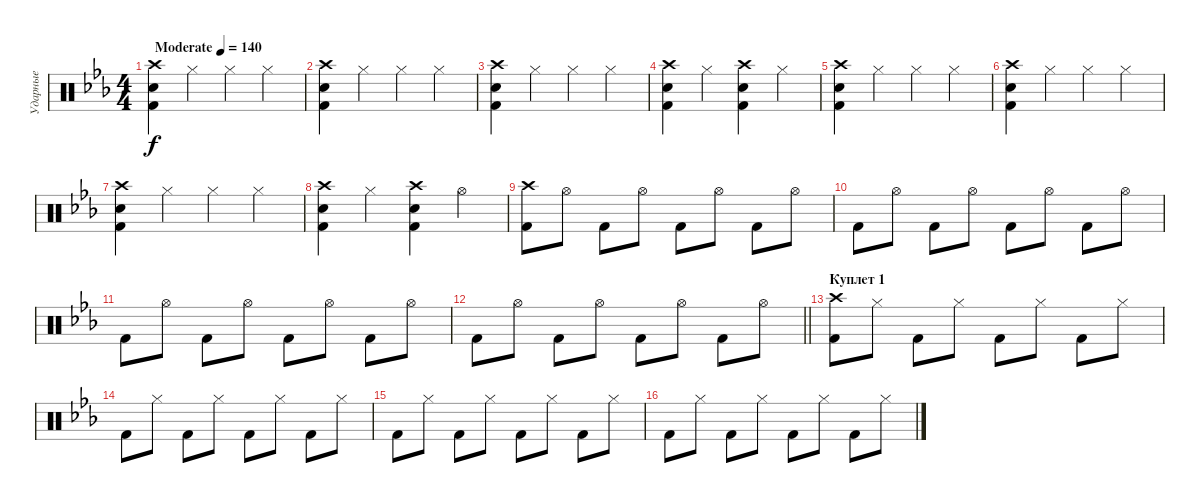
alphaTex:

\track ("Ударные" "Ударные") {instrument percussion}
\staff {score}
\articulation defaults
\ts (4 4)
\tempo (140 "Moderate")
\clef neutral
\ks cminor
("Crash high (hit)" "Kick (hit) 2" "Snare (hit) 2").4{dy f} "Hi-Hat (closed)".4 "Hi-Hat (closed)".4 "Hi-Hat (closed)".4 |
("Crash high (hit)" "Kick (hit) 2" "Snare (hit) 2").4 "Hi-Hat (closed)".4 "Hi-Hat (closed)".4 "Hi-Hat (closed)".4 |
("Crash high (hit)" "Kick (hit) 2" "Snare (hit) 2").4 "Hi-Hat (closed)".4 "Hi-Hat (closed)".4 "Hi-Hat (closed)".4 |
("Crash high (hit)" "Kick (hit) 2" "Snare (hit) 2").4 "Hi-Hat (closed)".4 ("Crash high (hit)" "Kick (hit) 2" "Snare (hit) 2").4 "Hi-Hat (closed)".4 |
("Crash high (hit)" "Kick (hit) 2" "Snare (hit) 2").4 "Hi-Hat (closed)".4 "Hi-Hat (closed)".4 "Hi-Hat (closed)".4 |
("Crash high (hit)" "Kick (hit) 2" "Snare (hit) 2").4 "Hi-Hat (closed)".4 "Hi-Hat (closed)".4 "Hi-Hat (closed)".4 |
("Crash high (hit)" "Kick (hit) 2" "Snare (hit) 2").4 "Hi-Hat (closed)".4 "Hi-Hat (closed)".4 "Hi-Hat (closed)".4 |
("Crash high (hit)" "Kick (hit) 2" "Snare (hit) 2").4 "Hi-Hat (closed)".4 ("Crash high (hit)" "Kick (hit) 2" "Snare (hit) 2").4 "Hi-Hat (open)".4 |
("Kick (hit) 2" "Crash high (hit)").8 "Hi-Hat (open)".8 "Kick (hit) 2".8 "Hi-Hat (open)".8 "Kick (hit) 2".8 "Hi-Hat (open)".8 "Kick (hit) 2".8 "Hi-Hat (open)".8 |
"Kick (hit) 2".8 "Hi-Hat (open)".8 "Kick (hit) 2".8 "Hi-Hat (open)".8 "Kick (hit) 2".8 "Hi-Hat (open)".8 "Kick (hit) 2".8 "Hi-Hat (open)".8 |
"Kick (hit) 2".8 "Hi-Hat (open)".8 "Kick (hit) 2".8 "Hi-Hat (open)".8 "Kick (hit) 2".8 "Hi-Hat (open)".8 "Kick (hit) 2".8 "Hi-Hat (open)".8 |
\barLineRight lightlight "Kick (hit) 2".8 "Hi-Hat (open)".8 "Kick (hit) 2".8 "Hi-Hat (open)".8 "Kick (hit) 2".8 "Hi-Hat (open)".8 "Kick (hit) 2".8 "Hi-Hat (open)".8
|
\section ("" "Куплет 1")
("Kick (hit) 2" "Crash high (hit)").8 "Hi-Hat (closed)".8 "Kick (hit) 2".8 "Hi-Hat (closed)".8 "Kick (hit) 2".8 "Hi-Hat (closed)".8 "Kick (hit) 2".8 "Hi-Hat (closed)".8 |
"Kick (hit) 2".8 "Hi-Hat (closed)".8 "Kick (hit) 2".8 "Hi-Hat (closed)".8 "Kick (hit) 2".8 "Hi-Hat (closed)".8 "Kick (hit) 2".8 "Hi-Hat (closed)".8 |
"Kick (hit) 2".8 "Hi-Hat (closed)".8 "Kick (hit) 2".8 "Hi-Hat (closed)".8 "Kick (hit) 2".8 "Hi-Hat (closed)".8 "Kick (hit) 2".8 "Hi-Hat (closed)".8 |
"Kick (hit) 2".8 "Hi-Hat (closed)".8 "Kick (hit) 2".8 "Hi-Hat (closed)".8 "Kick (hit) 2".8 "Hi-Hat (closed)".8 "Kick (hit) 2".8 "Hi-Hat (closed)".8
